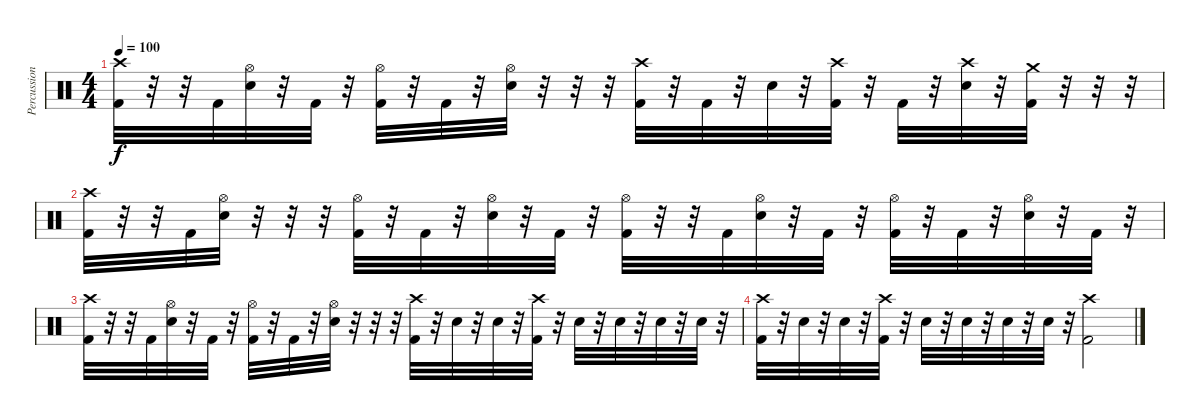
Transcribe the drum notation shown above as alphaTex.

\track ("Percussion" "Percussion") {instrument percussion}
\staff {score}
\articulation defaults
\ts (4 4)
\tempo 100
\clef neutral
\ks c
("Crash high (hit)" "Kick (hit) 2").32{dy f} r.32 r.32 "Kick (hit) 2".32 ("Hi-Hat (open)" "Snare (hit) 2").32 r.32 "Kick (hit) 2".32 r.32 ("Hi-Hat (open)" "Kick (hit) 2").32 r.32 "Kick (hit) 2".32 r.32 ("Hi-Hat (open)" "Snare (hit) 2").32 r.32 r.32 r.32 ("Crash high (hit)" "Kick (hit) 2").32 r.32 "Kick (hit) 2".32 r.32 "Snare (hit) 2".32 r.32 ("Crash high (hit)" "Kick (hit) 2").32 r.32 "Kick (hit) 2".32 r.32 ("Crash high (hit)" "Snare (hit) 2").32 r.32 ("Crash medium (hit)" "Kick (hit) 2").32 r.32 r.32 r.32 |
("Crash high (hit)" "Kick (hit) 2").32 r.32 r.32 "Kick (hit) 2".32 ("Hi-Hat (open)" "Snare (hit) 2").32 r.32 r.32 r.32 ("Hi-Hat (open)" "Kick (hit) 2").32 r.32 "Kick (hit) 2".32 r.32 ("Hi-Hat (open)" "Snare (hit) 2").32 r.32 "Kick (hit) 2".32 r.32 ("Hi-Hat (open)" "Kick (hit) 2").32 r.32 r.32 "Kick (hit) 2".32 ("Hi-Hat (open)" "Snare (hit) 2").32 r.32 "Kick (hit) 2".32 r.32 ("Hi-Hat (open)" "Kick (hit) 2").32 r.32 "Kick (hit) 2".32 r.32 ("Hi-Hat (open)" "Snare (hit) 2").32 r.32 "Kick (hit) 2".32 r.32 |
("Crash high (hit)" "Kick (hit) 2").32 r.32 r.32 "Kick (hit) 2".32 ("Hi-Hat (open)" "Snare (hit) 2").32 r.32 "Kick (hit) 2".32 r.32 ("Hi-Hat (open)" "Kick (hit) 2").32 r.32 "Kick (hit) 2".32 r.32 ("Hi-Hat (open)" "Snare (hit) 2").32 r.32 r.32 r.32 ("Crash high (hit)" "Kick (hit) 2").32 r.32 "Snare (hit) 2".32 r.32 "Snare (hit) 2".32 r.32 ("Crash high (hit)" "Kick (hit) 2").32 r.32 "Snare (hit) 2".32 r.32 "Snare (hit) 2".32 r.32 "Snare (hit) 2".32 r.32 "Snare (hit) 2".32 r.32 |
("Crash high (hit)" "Kick (hit) 2").32 r.32 "Snare (hit) 2".32 r.32 "Snare (hit) 2".32 r.32 ("Crash high (hit)" "Kick (hit) 2").32 r.32 "Snare (hit) 2".32 r.32 "Snare (hit) 2".32 r.32 "Snare (hit) 2".32 r.32 "Snare (hit) 2".32 r.32 ("Crash high (hit)" "Kick (hit) 2").2
